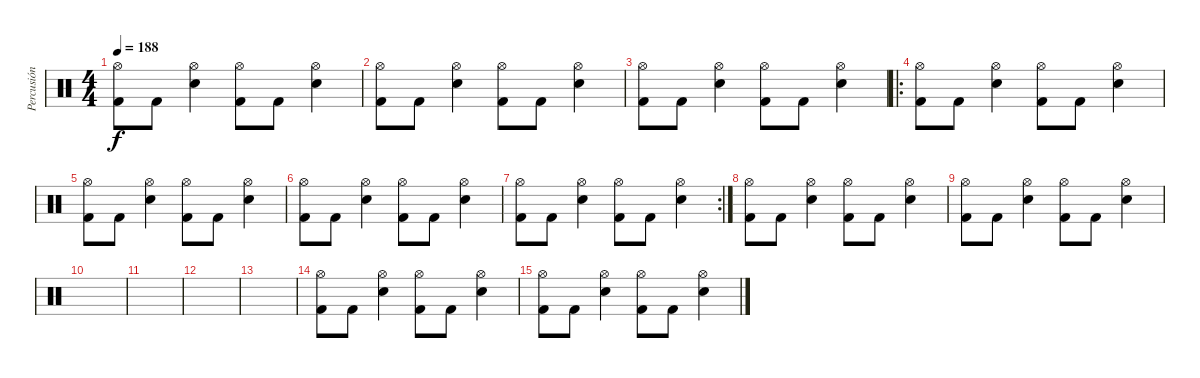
\track ("Percusión" "Percusión") {instrument percussion}
\staff {score}
\articulation defaults
\ts (4 4)
\tempo 188
\clef neutral
\ks c
("Kick (hit) 2" "Hi-Hat (open)").8{dy f} "Kick (hit) 2".8 ("Electric Snare (hit)" "Hi-Hat (open)").4 ("Kick (hit) 2" "Hi-Hat (open)").8 "Kick (hit) 2".8 ("Electric Snare (hit)" "Hi-Hat (open)").4 |
("Kick (hit) 2" "Hi-Hat (open)").8 "Kick (hit) 2".8 ("Electric Snare (hit)" "Hi-Hat (open)").4 ("Kick (hit) 2" "Hi-Hat (open)").8 "Kick (hit) 2".8 ("Electric Snare (hit)" "Hi-Hat (open)").4 |
("Kick (hit) 2" "Hi-Hat (open)").8 "Kick (hit) 2".8 ("Electric Snare (hit)" "Hi-Hat (open)").4 ("Kick (hit) 2" "Hi-Hat (open)").8 "Kick (hit) 2".8 ("Electric Snare (hit)" "Hi-Hat (open)").4 |
\ro
("Kick (hit) 2" "Hi-Hat (open)").8 "Kick (hit) 2".8 ("Electric Snare (hit)" "Hi-Hat (open)").4 ("Kick (hit) 2" "Hi-Hat (open)").8 "Kick (hit) 2".8 ("Electric Snare (hit)" "Hi-Hat (open)").4 |
("Kick (hit) 2" "Hi-Hat (open)").8 "Kick (hit) 2".8 ("Electric Snare (hit)" "Hi-Hat (open)").4 ("Kick (hit) 2" "Hi-Hat (open)").8 "Kick (hit) 2".8 ("Electric Snare (hit)" "Hi-Hat (open)").4 |
("Kick (hit) 2" "Hi-Hat (open)").8 "Kick (hit) 2".8 ("Electric Snare (hit)" "Hi-Hat (open)").4 ("Kick (hit) 2" "Hi-Hat (open)").8 "Kick (hit) 2".8 ("Electric Snare (hit)" "Hi-Hat (open)").4 |
\rc 2
("Kick (hit) 2" "Hi-Hat (open)").8 "Kick (hit) 2".8 ("Electric Snare (hit)" "Hi-Hat (open)").4 ("Kick (hit) 2" "Hi-Hat (open)").8 "Kick (hit) 2".8 ("Electric Snare (hit)" "Hi-Hat (open)").4 |
("Kick (hit) 2" "Hi-Hat (open)").8 "Kick (hit) 2".8 ("Electric Snare (hit)" "Hi-Hat (open)").4 ("Kick (hit) 2" "Hi-Hat (open)").8 "Kick (hit) 2".8 ("Electric Snare (hit)" "Hi-Hat (open)").4 |
("Kick (hit) 2" "Hi-Hat (open)").8 "Kick (hit) 2".8 ("Electric Snare (hit)" "Hi-Hat (open)").4 ("Kick (hit) 2" "Hi-Hat (open)").8 "Kick (hit) 2".8 ("Electric Snare (hit)" "Hi-Hat (open)").4 |
|
|
|
|
("Kick (hit) 2" "Hi-Hat (open)").8 "Kick (hit) 2".8 ("Electric Snare (hit)" "Hi-Hat (open)").4 ("Kick (hit) 2" "Hi-Hat (open)").8 "Kick (hit) 2".8 ("Electric Snare (hit)" "Hi-Hat (open)").4 |
("Kick (hit) 2" "Hi-Hat (open)").8 "Kick (hit) 2".8 ("Electric Snare (hit)" "Hi-Hat (open)").4 ("Kick (hit) 2" "Hi-Hat (open)").8 "Kick (hit) 2".8 ("Electric Snare (hit)" "Hi-Hat (open)").4
